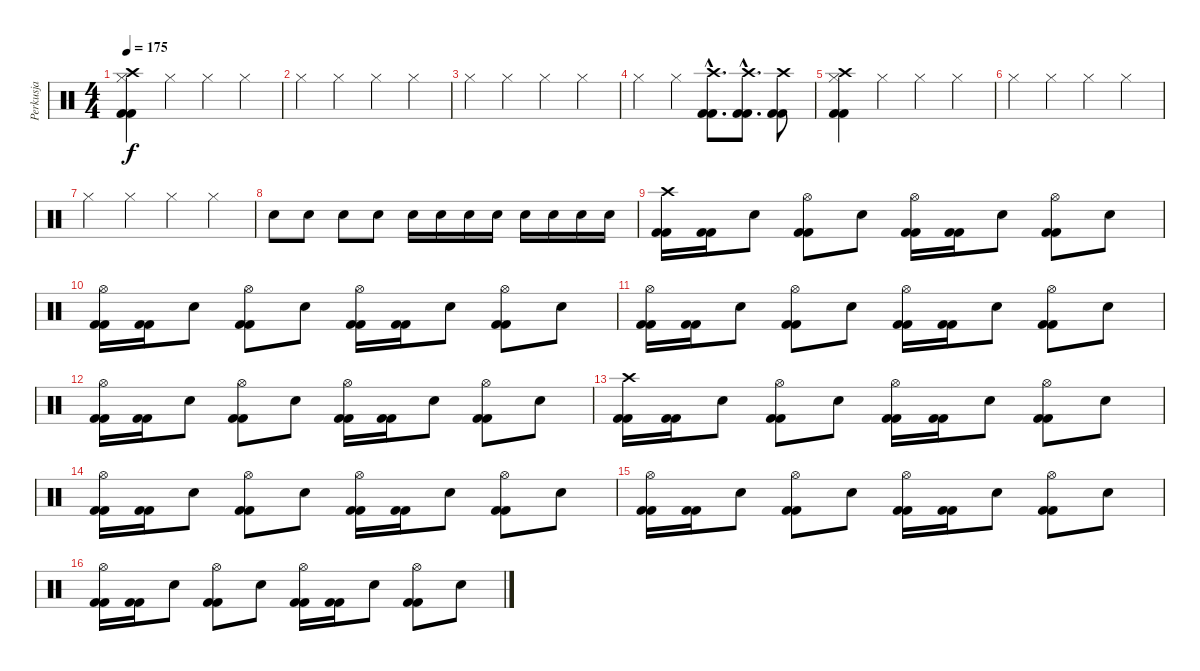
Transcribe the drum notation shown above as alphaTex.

\track ("Perkusja" "Perkusja") {instrument percussion}
\staff {score}
\articulation defaults
\ts (4 4)
\tempo 175
\clef neutral
\ks c
("Crash high (hit)" "Hi-Hat (closed)" "Kick (hit) 2" "Kick (hit) 2").4{dy f} "Hi-Hat (closed)".4 "Hi-Hat (closed)".4 "Hi-Hat (closed)".4 |
"Hi-Hat (closed)".4 "Hi-Hat (closed)".4 "Hi-Hat (closed)".4 "Hi-Hat (closed)".4 |
"Hi-Hat (closed)".4 "Hi-Hat (closed)".4 "Hi-Hat (closed)".4 "Hi-Hat (closed)".4 |
"Hi-Hat (closed)".4 "Hi-Hat (closed)".4 ("Crash high (hit)"{hac} "Kick (hit) 2"{hac} "Kick (hit) 2"{hac}).8{d} ("Crash high (hit)"{hac} "Kick (hit) 2"{hac} "Kick (hit) 2"{hac}).8{d} ("Crash high (hit)" "Kick (hit) 2" "Kick (hit) 2").8 |
("Crash high (hit)" "Hi-Hat (closed)" "Kick (hit) 2" "Kick (hit) 2").4 "Hi-Hat (closed)".4 "Hi-Hat (closed)".4 "Hi-Hat (closed)".4 |
"Hi-Hat (closed)".4 "Hi-Hat (closed)".4 "Hi-Hat (closed)".4 "Hi-Hat (closed)".4 |
"Hi-Hat (closed)".4 "Hi-Hat (closed)".4 "Hi-Hat (closed)".4 "Hi-Hat (closed)".4 |
"Electric Snare (hit)".8 "Electric Snare (hit)".8 "Electric Snare (hit)".8 "Electric Snare (hit)".8 "Electric Snare (hit)".16 "Electric Snare (hit)".16 "Electric Snare (hit)".16 "Electric Snare (hit)".16 "Electric Snare (hit)".16 "Electric Snare (hit)".16 "Electric Snare (hit)".16 "Electric Snare (hit)".16 |
("Crash high (hit)" "Kick (hit) 2" "Kick (hit) 2").16 ("Kick (hit) 2" "Kick (hit) 2").16 "Electric Snare (hit)".8 ("Hi-Hat (open)" "Kick (hit) 2" "Kick (hit) 2").8 "Electric Snare (hit)".8 ("Hi-Hat (open)" "Kick (hit) 2" "Kick (hit) 2").16 ("Kick (hit) 2" "Kick (hit) 2").16 "Electric Snare (hit)".8 ("Hi-Hat (open)" "Kick (hit) 2" "Kick (hit) 2").8 "Electric Snare (hit)".8 |
("Hi-Hat (open)" "Kick (hit) 2" "Kick (hit) 2").16 ("Kick (hit) 2" "Kick (hit) 2").16 "Electric Snare (hit)".8 ("Hi-Hat (open)" "Kick (hit) 2" "Kick (hit) 2").8 "Electric Snare (hit)".8 ("Hi-Hat (open)" "Kick (hit) 2" "Kick (hit) 2").16 ("Kick (hit) 2" "Kick (hit) 2").16 "Electric Snare (hit)".8 ("Hi-Hat (open)" "Kick (hit) 2" "Kick (hit) 2").8 "Electric Snare (hit)".8 |
("Hi-Hat (open)" "Kick (hit) 2" "Kick (hit) 2").16 ("Kick (hit) 2" "Kick (hit) 2").16 "Electric Snare (hit)".8 ("Hi-Hat (open)" "Kick (hit) 2" "Kick (hit) 2").8 "Electric Snare (hit)".8 ("Hi-Hat (open)" "Kick (hit) 2" "Kick (hit) 2").16 ("Kick (hit) 2" "Kick (hit) 2").16 "Electric Snare (hit)".8 ("Hi-Hat (open)" "Kick (hit) 2" "Kick (hit) 2").8 "Electric Snare (hit)".8 |
("Hi-Hat (open)" "Kick (hit) 2" "Kick (hit) 2").16 ("Kick (hit) 2" "Kick (hit) 2").16 "Electric Snare (hit)".8 ("Hi-Hat (open)" "Kick (hit) 2" "Kick (hit) 2").8 "Electric Snare (hit)".8 ("Hi-Hat (open)" "Kick (hit) 2" "Kick (hit) 2").16 ("Kick (hit) 2" "Kick (hit) 2").16 "Electric Snare (hit)".8 ("Hi-Hat (open)" "Kick (hit) 2" "Kick (hit) 2").8 "Electric Snare (hit)".8 |
("Crash high (hit)" "Kick (hit) 2" "Kick (hit) 2").16 ("Kick (hit) 2" "Kick (hit) 2").16 "Electric Snare (hit)".8 ("Hi-Hat (open)" "Kick (hit) 2" "Kick (hit) 2").8 "Electric Snare (hit)".8 ("Hi-Hat (open)" "Kick (hit) 2" "Kick (hit) 2").16 ("Kick (hit) 2" "Kick (hit) 2").16 "Electric Snare (hit)".8 ("Hi-Hat (open)" "Kick (hit) 2" "Kick (hit) 2").8 "Electric Snare (hit)".8 |
("Hi-Hat (open)" "Kick (hit) 2" "Kick (hit) 2").16 ("Kick (hit) 2" "Kick (hit) 2").16 "Electric Snare (hit)".8 ("Hi-Hat (open)" "Kick (hit) 2" "Kick (hit) 2").8 "Electric Snare (hit)".8 ("Hi-Hat (open)" "Kick (hit) 2" "Kick (hit) 2").16 ("Kick (hit) 2" "Kick (hit) 2").16 "Electric Snare (hit)".8 ("Hi-Hat (open)" "Kick (hit) 2" "Kick (hit) 2").8 "Electric Snare (hit)".8 |
("Hi-Hat (open)" "Kick (hit) 2" "Kick (hit) 2").16 ("Kick (hit) 2" "Kick (hit) 2").16 "Electric Snare (hit)".8 ("Hi-Hat (open)" "Kick (hit) 2" "Kick (hit) 2").8 "Electric Snare (hit)".8 ("Hi-Hat (open)" "Kick (hit) 2" "Kick (hit) 2").16 ("Kick (hit) 2" "Kick (hit) 2").16 "Electric Snare (hit)".8 ("Hi-Hat (open)" "Kick (hit) 2" "Kick (hit) 2").8 "Electric Snare (hit)".8 |
("Hi-Hat (open)" "Kick (hit) 2" "Kick (hit) 2").16 ("Kick (hit) 2" "Kick (hit) 2").16 "Electric Snare (hit)".8 ("Hi-Hat (open)" "Kick (hit) 2" "Kick (hit) 2").8 "Electric Snare (hit)".8 ("Hi-Hat (open)" "Kick (hit) 2" "Kick (hit) 2").16 ("Kick (hit) 2" "Kick (hit) 2").16 "Electric Snare (hit)".8 ("Hi-Hat (open)" "Kick (hit) 2" "Kick (hit) 2").8 "Electric Snare (hit)".8
